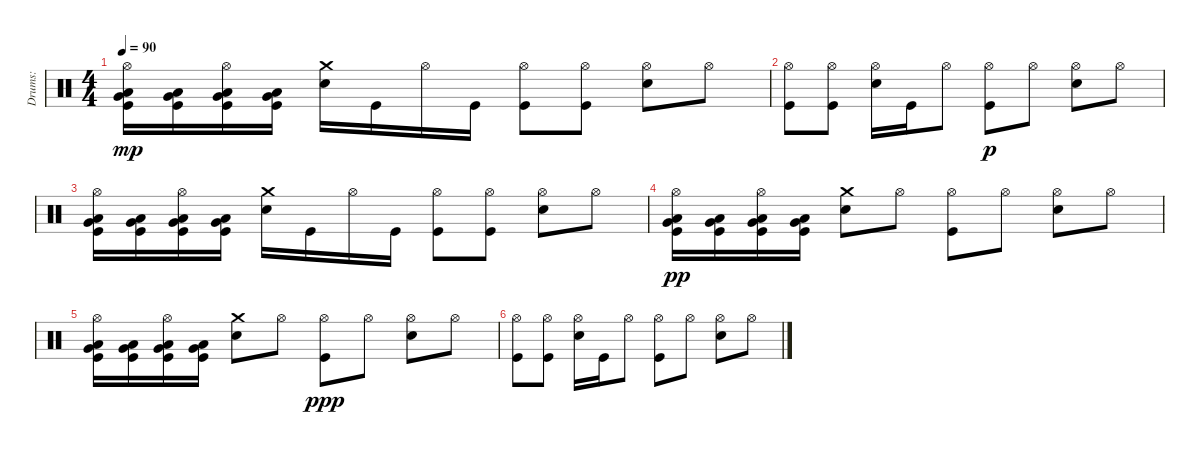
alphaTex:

\track ("Drums:" "Drums:") {instrument percussion}
\staff {score}
\articulation defaults
\ts (4 4)
\tempo 90
\clef neutral
\ks c
("Hi-Hat (open)" "Very Low Tom (hit)" "Low Floor Tom (hit)" "Kick (hit)").16{dy mp} ("Very Low Tom (hit)" "Low Floor Tom (hit)" "Kick (hit)").16 ("Hi-Hat (open)" "Very Low Tom (hit)" "Low Floor Tom (hit)" "Kick (hit)").16 ("Very Low Tom (hit)" "Low Floor Tom (hit)" "Kick (hit)").16 ("Crash medium (hit)" "Snare (hit) 2").16 "Kick (hit)".16 "Hi-Hat (open)".16 "Kick (hit)".16 ("Hi-Hat (open)" "Kick (hit)").8 ("Hi-Hat (open)" "Kick (hit)").8 ("Hi-Hat (open)" "Snare (hit) 2").8 "Hi-Hat (open)".8 |
("Hi-Hat (open)" "Kick (hit)").8 ("Hi-Hat (open)" "Kick (hit)").8 ("Hi-Hat (open)" "Snare (hit) 2").16 "Kick (hit)".16 "Hi-Hat (open)".8 ("Hi-Hat (open)" "Kick (hit)").8{dy p} "Hi-Hat (open)".8 ("Hi-Hat (open)" "Snare (hit) 2").8 "Hi-Hat (open)".8 |
("Hi-Hat (open)" "Very Low Tom (hit)" "Low Floor Tom (hit)" "Kick (hit)").16 ("Very Low Tom (hit)" "Low Floor Tom (hit)" "Kick (hit)").16 ("Hi-Hat (open)" "Very Low Tom (hit)" "Low Floor Tom (hit)" "Kick (hit)").16 ("Very Low Tom (hit)" "Low Floor Tom (hit)" "Kick (hit)").16 ("Crash medium (hit)" "Snare (hit) 2").16 "Kick (hit)".16 "Hi-Hat (open)".16 "Kick (hit)".16 ("Hi-Hat (open)" "Kick (hit)").8 ("Hi-Hat (open)" "Kick (hit)").8 ("Hi-Hat (open)" "Snare (hit) 2").8 "Hi-Hat (open)".8 |
("Hi-Hat (open)" "Very Low Tom (hit)" "Low Floor Tom (hit)" "Kick (hit)").16{dy pp} ("Very Low Tom (hit)" "Low Floor Tom (hit)" "Kick (hit)").16 ("Hi-Hat (open)" "Very Low Tom (hit)" "Low Floor Tom (hit)" "Kick (hit)").16 ("Very Low Tom (hit)" "Low Floor Tom (hit)" "Kick (hit)").16 ("Crash medium (hit)" "Snare (hit) 2").8 "Hi-Hat (open)".8 ("Hi-Hat (open)" "Kick (hit)").8 "Hi-Hat (open)".8 ("Hi-Hat (open)" "Snare (hit) 2").8 "Hi-Hat (open)".8 |
("Hi-Hat (open)" "Very Low Tom (hit)" "Low Floor Tom (hit)" "Kick (hit)").16 ("Very Low Tom (hit)" "Low Floor Tom (hit)" "Kick (hit)").16 ("Hi-Hat (open)" "Very Low Tom (hit)" "Low Floor Tom (hit)" "Kick (hit)").16 ("Very Low Tom (hit)" "Low Floor Tom (hit)" "Kick (hit)").16 ("Crash medium (hit)" "Snare (hit) 2").8 "Hi-Hat (open)".8 ("Hi-Hat (open)" "Kick (hit)").8{dy ppp} "Hi-Hat (open)".8 ("Hi-Hat (open)" "Snare (hit) 2").8 "Hi-Hat (open)".8 |
("Hi-Hat (open)" "Kick (hit)").8 ("Hi-Hat (open)" "Kick (hit)").8 ("Hi-Hat (open)" "Snare (hit) 2").16 "Kick (hit)".16 "Hi-Hat (open)".8 ("Hi-Hat (open)" "Kick (hit)").8 "Hi-Hat (open)".8 ("Hi-Hat (open)" "Snare (hit) 2").8 "Hi-Hat (open)".8
